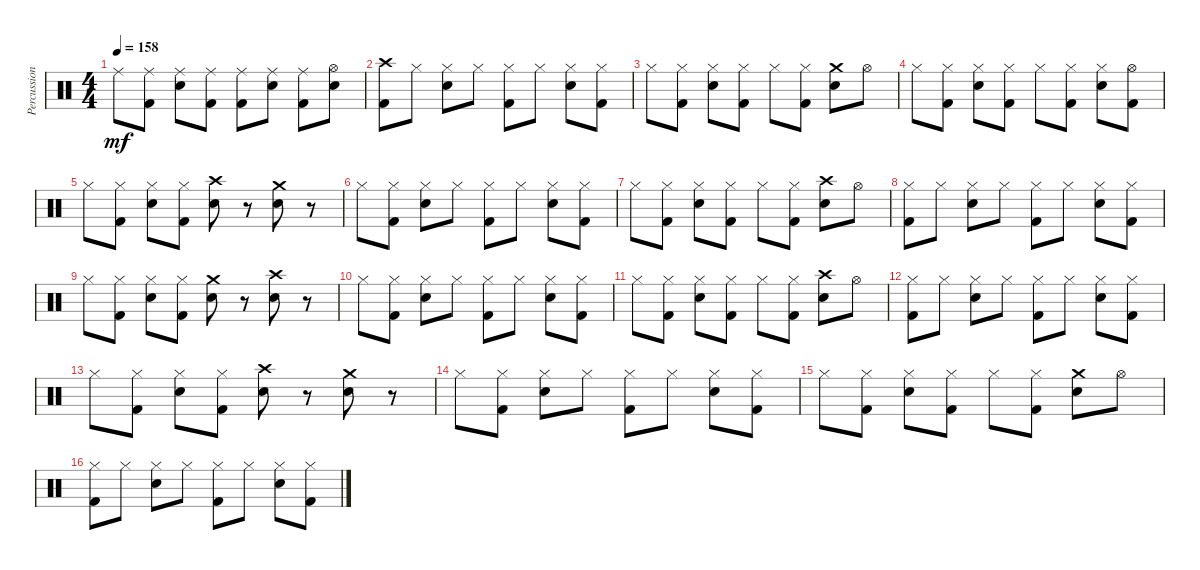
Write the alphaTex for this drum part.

\track ("Percussions" "Percussion") {instrument percussion}
\staff {score}
\articulation defaults
\ts (4 4)
\tempo 158
\clef neutral
\ks c "Ride (middle)".8{dy mf}
("Ride (middle)" "Kick (hit) 2").8 ("Ride (middle)" "Electric Snare (hit)").8 ("Ride (middle)" "Kick (hit) 2").8 ("Ride (middle)" "Kick (hit) 2").8 ("Ride (middle)" "Electric Snare (hit)").8 ("Ride (middle)" "Kick (hit) 2").8 ("Hi-Hat (open)" "Electric Snare (hit)").8 |
("Crash high (hit)" "Kick (hit) 2").8 "Hi-Hat (closed)".8 ("Hi-Hat (closed)" "Electric Snare (hit)").8 "Hi-Hat (closed)".8 ("Hi-Hat (closed)" "Kick (hit) 2").8 "Hi-Hat (closed)".8 ("Hi-Hat (closed)" "Electric Snare (hit)").8 ("Hi-Hat (closed)" "Kick (hit) 2").8 |
"Hi-Hat (closed)".8 ("Hi-Hat (closed)" "Kick (hit) 2").8 ("Hi-Hat (closed)" "Electric Snare (hit)").8 ("Hi-Hat (closed)" "Kick (hit) 2").8 "Hi-Hat (closed)".8 ("Hi-Hat (closed)" "Kick (hit) 2").8 ("Crash medium (hit)" "Electric Snare (hit)").8 "Hi-Hat (open)".8 |
"Hi-Hat (closed)".8 ("Hi-Hat (closed)" "Kick (hit) 2").8 ("Hi-Hat (closed)" "Electric Snare (hit)").8 ("Hi-Hat (closed)" "Kick (hit) 2").8 "Hi-Hat (closed)".8 ("Hi-Hat (closed)" "Kick (hit) 2").8 ("Hi-Hat (closed)" "Electric Snare (hit)").8 ("Hi-Hat (open)" "Kick (hit) 2").8 |
"Hi-Hat (closed)".8 ("Hi-Hat (closed)" "Kick (hit) 2").8 ("Hi-Hat (closed)" "Electric Snare (hit)").8 ("Hi-Hat (closed)" "Kick (hit) 2").8 ("Crash high (hit)" "Electric Snare (hit)").8 r.8 ("Crash medium (hit)" "Electric Snare (hit)").8 r.8 |
"Hi-Hat (closed)".8 ("Hi-Hat (closed)" "Kick (hit) 2").8 ("Hi-Hat (closed)" "Electric Snare (hit)").8 "Hi-Hat (closed)".8 ("Hi-Hat (closed)" "Kick (hit) 2").8 "Hi-Hat (closed)".8 ("Hi-Hat (closed)" "Electric Snare (hit)").8 ("Hi-Hat (closed)" "Kick (hit) 2").8 |
"Hi-Hat (closed)".8 ("Hi-Hat (closed)" "Kick (hit) 2").8 ("Hi-Hat (closed)" "Electric Snare (hit)").8 ("Hi-Hat (closed)" "Kick (hit) 2").8 "Hi-Hat (closed)".8 ("Hi-Hat (closed)" "Kick (hit) 2").8 ("Crash high (hit)" "Electric Snare (hit)").8 "Hi-Hat (open)".8 |
("Hi-Hat (closed)" "Kick (hit) 2").8 "Hi-Hat (closed)".8 ("Hi-Hat (closed)" "Electric Snare (hit)").8 "Hi-Hat (closed)".8 ("Hi-Hat (closed)" "Kick (hit) 2").8 "Hi-Hat (closed)".8 ("Hi-Hat (closed)" "Electric Snare (hit)").8 ("Hi-Hat (closed)" "Kick (hit) 2").8 |
"Hi-Hat (closed)".8 ("Hi-Hat (closed)" "Kick (hit) 2").8 ("Hi-Hat (closed)" "Electric Snare (hit)").8 ("Hi-Hat (closed)" "Kick (hit) 2").8 ("Crash medium (hit)" "Electric Snare (hit)").8 r.8 ("Crash high (hit)" "Electric Snare (hit)").8 r.8 |
"Hi-Hat (closed)".8 ("Hi-Hat (closed)" "Kick (hit) 2").8 ("Hi-Hat (closed)" "Electric Snare (hit)").8 "Hi-Hat (closed)".8 ("Hi-Hat (closed)" "Kick (hit) 2").8 "Hi-Hat (closed)".8 ("Hi-Hat (closed)" "Electric Snare (hit)").8 ("Hi-Hat (closed)" "Kick (hit) 2").8 |
"Hi-Hat (closed)".8 ("Hi-Hat (closed)" "Kick (hit) 2").8 ("Hi-Hat (closed)" "Electric Snare (hit)").8 ("Hi-Hat (closed)" "Kick (hit) 2").8 "Hi-Hat (closed)".8 ("Hi-Hat (closed)" "Kick (hit) 2").8 ("Crash high (hit)" "Electric Snare (hit)").8 "Hi-Hat (open)".8 |
("Hi-Hat (closed)" "Kick (hit) 2").8 "Hi-Hat (closed)".8 ("Hi-Hat (closed)" "Electric Snare (hit)").8 "Hi-Hat (closed)".8 ("Hi-Hat (closed)" "Kick (hit) 2").8 "Hi-Hat (closed)".8 ("Hi-Hat (closed)" "Electric Snare (hit)").8 ("Hi-Hat (closed)" "Kick (hit) 2").8 |
"Hi-Hat (closed)".8 ("Hi-Hat (closed)" "Kick (hit) 2").8 ("Hi-Hat (closed)" "Electric Snare (hit)").8 ("Hi-Hat (closed)" "Kick (hit) 2").8 ("Crash high (hit)" "Electric Snare (hit)").8 r.8 ("Crash medium (hit)" "Electric Snare (hit)").8 r.8 |
"Hi-Hat (closed)".8 ("Hi-Hat (closed)" "Kick (hit) 2").8 ("Hi-Hat (closed)" "Electric Snare (hit)").8 "Hi-Hat (closed)".8 ("Hi-Hat (closed)" "Kick (hit) 2").8 "Hi-Hat (closed)".8 ("Hi-Hat (closed)" "Electric Snare (hit)").8 ("Hi-Hat (closed)" "Kick (hit) 2").8 |
"Hi-Hat (closed)".8 ("Hi-Hat (closed)" "Kick (hit) 2").8 ("Hi-Hat (closed)" "Electric Snare (hit)").8 ("Hi-Hat (closed)" "Kick (hit) 2").8 "Hi-Hat (closed)".8 ("Hi-Hat (closed)" "Kick (hit) 2").8 ("Crash medium (hit)" "Electric Snare (hit)").8 "Hi-Hat (open)".8 |
("Hi-Hat (closed)" "Kick (hit) 2").8 "Hi-Hat (closed)".8 ("Hi-Hat (closed)" "Electric Snare (hit)").8 "Hi-Hat (closed)".8 ("Hi-Hat (closed)" "Kick (hit) 2").8 "Hi-Hat (closed)".8 ("Hi-Hat (closed)" "Electric Snare (hit)").8 ("Hi-Hat (closed)" "Kick (hit) 2").8
